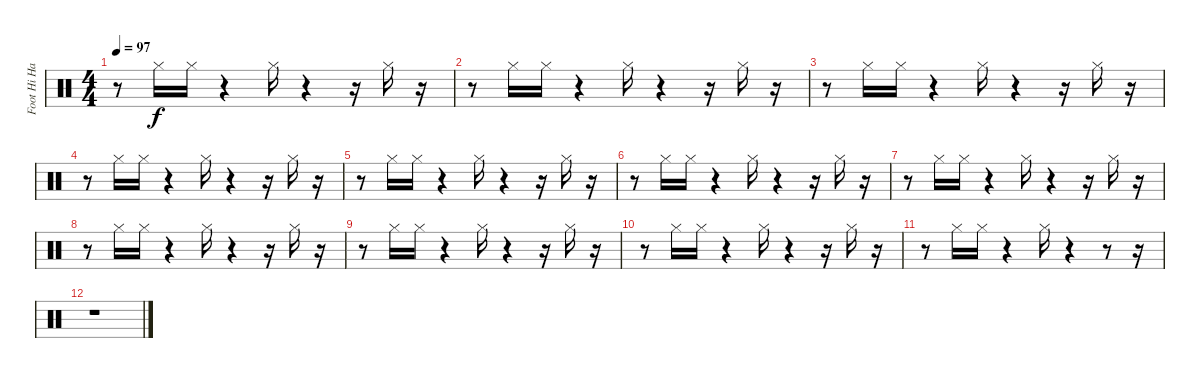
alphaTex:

\track ("Foot Hi Hat" "Foot Hi Ha") {instrument percussion}
\staff {score}
\articulation defaults
\ts (4 4)
\tempo 97
\clef neutral
\ks c
r.8{dy f} "Hi-Hat (closed)".16 "Hi-Hat (closed)".16 r.4 "Hi-Hat (closed)".16 r.4 r.16 "Hi-Hat (closed)".16 r.16 |
r.8 "Hi-Hat (closed)".16 "Hi-Hat (closed)".16 r.4 "Hi-Hat (closed)".16 r.4 r.16 "Hi-Hat (closed)".16 r.16 |
r.8 "Hi-Hat (closed)".16 "Hi-Hat (closed)".16 r.4 "Hi-Hat (closed)".16 r.4 r.16 "Hi-Hat (closed)".16 r.16 |
r.8 "Hi-Hat (closed)".16 "Hi-Hat (closed)".16 r.4 "Hi-Hat (closed)".16 r.4 r.16 "Hi-Hat (closed)".16 r.16 |
r.8 "Hi-Hat (closed)".16 "Hi-Hat (closed)".16 r.4 "Hi-Hat (closed)".16 r.4 r.16 "Hi-Hat (closed)".16 r.16 |
r.8 "Hi-Hat (closed)".16 "Hi-Hat (closed)".16 r.4 "Hi-Hat (closed)".16 r.4 r.16 "Hi-Hat (closed)".16 r.16 |
r.8 "Hi-Hat (closed)".16 "Hi-Hat (closed)".16 r.4 "Hi-Hat (closed)".16 r.4 r.16 "Hi-Hat (closed)".16 r.16 |
r.8 "Hi-Hat (closed)".16 "Hi-Hat (closed)".16 r.4 "Hi-Hat (closed)".16 r.4 r.16 "Hi-Hat (closed)".16 r.16 |
r.8 "Hi-Hat (closed)".16 "Hi-Hat (closed)".16 r.4 "Hi-Hat (closed)".16 r.4 r.16 "Hi-Hat (closed)".16 r.16 |
r.8 "Hi-Hat (closed)".16 "Hi-Hat (closed)".16 r.4 "Hi-Hat (closed)".16 r.4 r.16 "Hi-Hat (closed)".16 r.16 |
r.8 "Hi-Hat (closed)".16 "Hi-Hat (closed)".16 r.4 "Hi-Hat (closed)".16 r.4 r.8 r.16 |
r.1
